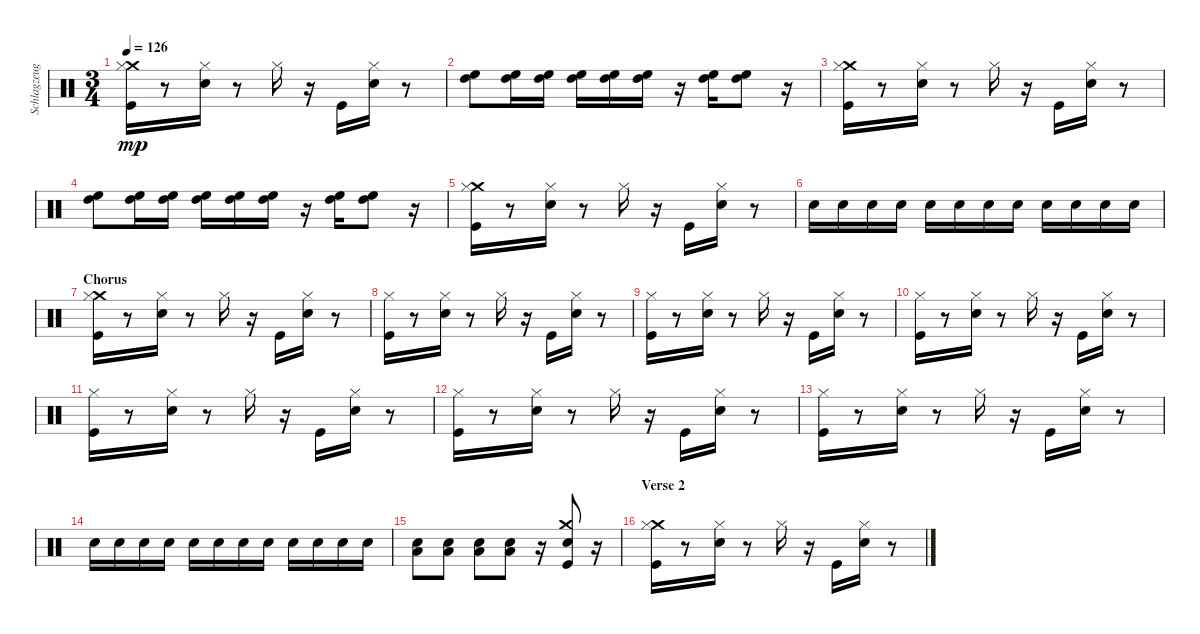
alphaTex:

\track ("Schlagzeug - Bela B." "Schlagzeug") {instrument percussion}
\staff {score}
\articulation defaults
\ts (3 4)
\tempo 126
\clef neutral
\ks c
("Kick (hit)" "Crash medium (hit)" "Hi-Hat (closed)").16{dy mp} r.8 ("Electric Snare (hit)" "Hi-Hat (closed)").16 r.8 "Hi-Hat (closed)".16 r.16 "Kick (hit)".16 ("Electric Snare (hit)" "Hi-Hat (closed)").16 r.8 |
("High Floor Tom (hit)" "High Tom (hit)").8 ("High Floor Tom (hit)" "High Tom (hit)").16 ("High Floor Tom (hit)" "High Tom (hit)").16 ("High Floor Tom (hit)" "High Tom (hit)").16 ("High Floor Tom (hit)" "High Tom (hit)").16 ("High Floor Tom (hit)" "High Tom (hit)").16 r.16 ("High Floor Tom (hit)" "High Tom (hit)").16 ("High Floor Tom (hit)" "High Tom (hit)").8 r.16 |
("Kick (hit)" "Crash medium (hit)" "Hi-Hat (closed)").16 r.8 ("Electric Snare (hit)" "Hi-Hat (closed)").16 r.8 "Hi-Hat (closed)".16 r.16 "Kick (hit)".16 ("Electric Snare (hit)" "Hi-Hat (closed)").16 r.8 |
("High Floor Tom (hit)" "High Tom (hit)").8 ("High Floor Tom (hit)" "High Tom (hit)").16 ("High Floor Tom (hit)" "High Tom (hit)").16 ("High Floor Tom (hit)" "High Tom (hit)").16 ("High Floor Tom (hit)" "High Tom (hit)").16 ("High Floor Tom (hit)" "High Tom (hit)").16 r.16 ("High Floor Tom (hit)" "High Tom (hit)").16 ("High Floor Tom (hit)" "High Tom (hit)").8 r.16 |
("Kick (hit)" "Crash medium (hit)" "Hi-Hat (closed)").16 r.8 ("Electric Snare (hit)" "Hi-Hat (closed)").16 r.8 "Hi-Hat (closed)".16 r.16 "Kick (hit)".16 ("Electric Snare (hit)" "Hi-Hat (closed)").16 r.8 |
"Electric Snare (hit)".16 "Electric Snare (hit)".16 "Electric Snare (hit)".16 "Electric Snare (hit)".16 "Electric Snare (hit)".16 "Electric Snare (hit)".16 "Electric Snare (hit)".16 "Electric Snare (hit)".16 "Electric Snare (hit)".16 "Electric Snare (hit)".16 "Electric Snare (hit)".16 "Electric Snare (hit)".16 |
\section ("" "Chorus")
("Kick (hit)" "Crash medium (hit)" "Hi-Hat (closed)").16 r.8 ("Electric Snare (hit)" "Hi-Hat (closed)").16 r.8 "Hi-Hat (closed)".16 r.16 "Kick (hit)".16 ("Electric Snare (hit)" "Hi-Hat (closed)").16 r.8 |
("Kick (hit)" "Hi-Hat (closed)").16 r.8 ("Electric Snare (hit)" "Hi-Hat (closed)").16 r.8 "Hi-Hat (closed)".16 r.16 "Kick (hit)".16 ("Electric Snare (hit)" "Hi-Hat (closed)").16 r.8 |
("Kick (hit)" "Hi-Hat (closed)").16 r.8 ("Electric Snare (hit)" "Hi-Hat (closed)").16 r.8 "Hi-Hat (closed)".16 r.16 "Kick (hit)".16 ("Electric Snare (hit)" "Hi-Hat (closed)").16 r.8 |
("Kick (hit)" "Hi-Hat (closed)").16 r.8 ("Electric Snare (hit)" "Hi-Hat (closed)").16 r.8 "Hi-Hat (closed)".16 r.16 "Kick (hit)".16 ("Electric Snare (hit)" "Hi-Hat (closed)").16 r.8 |
("Kick (hit)" "Hi-Hat (closed)").16 r.8 ("Electric Snare (hit)" "Hi-Hat (closed)").16 r.8 "Hi-Hat (closed)".16 r.16 "Kick (hit)".16 ("Electric Snare (hit)" "Hi-Hat (closed)").16 r.8 |
("Kick (hit)" "Hi-Hat (closed)").16 r.8 ("Electric Snare (hit)" "Hi-Hat (closed)").16 r.8 "Hi-Hat (closed)".16 r.16 "Kick (hit)".16 ("Electric Snare (hit)" "Hi-Hat (closed)").16 r.8 |
("Kick (hit)" "Hi-Hat (closed)").16 r.8 ("Electric Snare (hit)" "Hi-Hat (closed)").16 r.8 "Hi-Hat (closed)".16 r.16 "Kick (hit)".16 ("Electric Snare (hit)" "Hi-Hat (closed)").16 r.8 |
"Electric Snare (hit)".16 "Electric Snare (hit)".16 "Electric Snare (hit)".16 "Electric Snare (hit)".16 "Electric Snare (hit)".16 "Electric Snare (hit)".16 "Electric Snare (hit)".16 "Electric Snare (hit)".16 "Electric Snare (hit)".16 "Electric Snare (hit)".16 "Electric Snare (hit)".16 "Electric Snare (hit)".16 |
("Electric Snare (hit)" "Low Floor Tom (hit)").8 ("Electric Snare (hit)" "Low Floor Tom (hit)").8 ("Electric Snare (hit)" "Low Floor Tom (hit)").8 ("Electric Snare (hit)" "Low Floor Tom (hit)").8 r.16 ("Electric Snare (hit)" "Crash medium (hit)" "Kick (hit)").8 r.16 |
\section ("" "Verse 2")
("Kick (hit)" "Crash medium (hit)" "Hi-Hat (closed)").16 r.8 ("Electric Snare (hit)" "Hi-Hat (closed)").16 r.8 "Hi-Hat (closed)".16 r.16 "Kick (hit)".16 ("Electric Snare (hit)" "Hi-Hat (closed)").16 r.8
